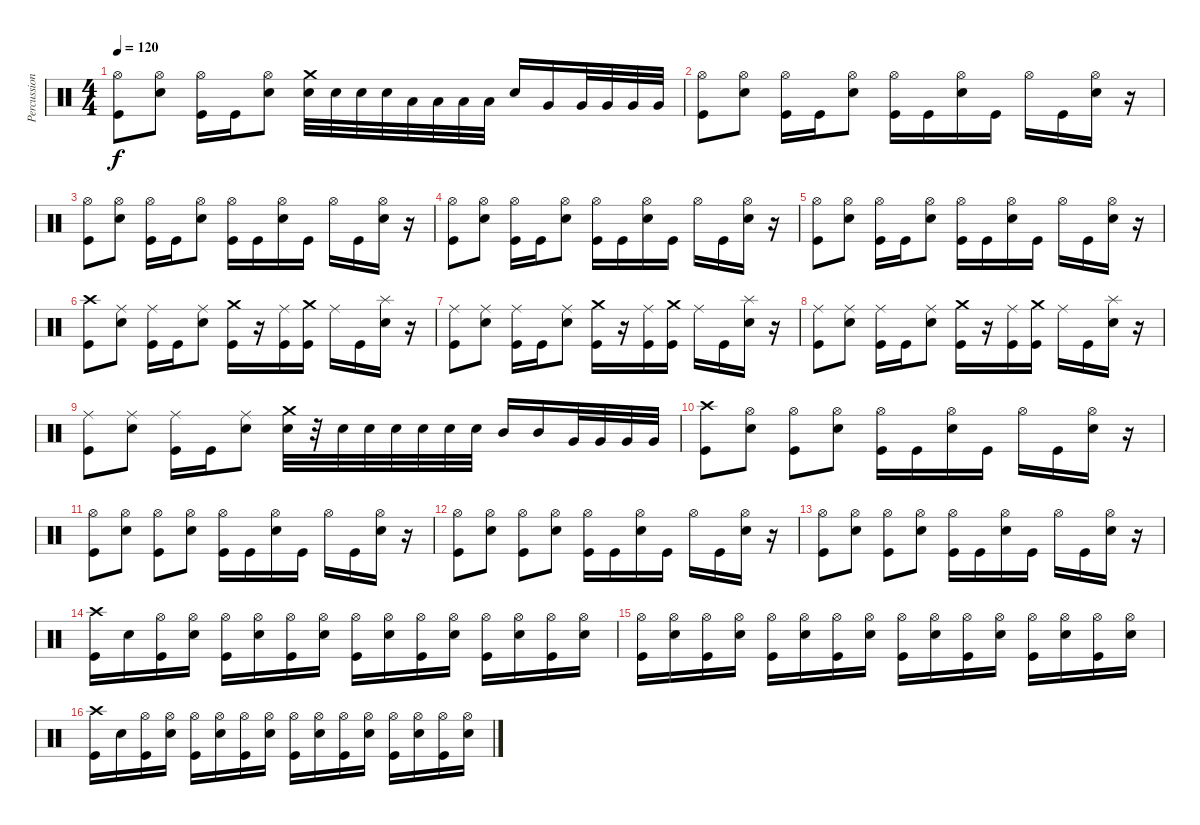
\track ("Percussion" "Percussion") {instrument percussion}
\staff {score}
\articulation defaults
\ts (4 4)
\tempo 120
\clef neutral
\ks c
("Kick (hit)" "Hi-Hat (open)").8{dy f} ("Electric Snare (hit)" "Hi-Hat (open)").8 ("Hi-Hat (open)" "Kick (hit)").16 "Kick (hit)".16 ("Hi-Hat (open)" "Electric Snare (hit)").8 ("Crash medium (hit)" "Electric Snare (hit)").32 "Electric Snare (hit)".32 "Electric Snare (hit)".32 "Electric Snare (hit)".32 "Low Tom (hit)".32 "Low Tom (hit)".32 "Low Tom (hit)".32 "Low Tom (hit)".32 "Electric Snare (hit)".16 "Very Low Tom (hit)".16 "Very Low Tom (hit)".32 "Very Low Tom (hit)".32 "Very Low Tom (hit)".32 "Very Low Tom (hit)".32 |
("Kick (hit)" "Hi-Hat (open)").8 ("Electric Snare (hit)" "Hi-Hat (open)").8 ("Hi-Hat (open)" "Kick (hit)").16 "Kick (hit)".16 ("Hi-Hat (open)" "Electric Snare (hit)").8 ("Hi-Hat (open)" "Kick (hit)").16 "Kick (hit)".16 ("Hi-Hat (open)" "Electric Snare (hit)").16 "Kick (hit)".16 "Hi-Hat (open)".16 "Kick (hit)".16 ("Hi-Hat (open)" "Electric Snare (hit)").16 r.16 |
("Kick (hit)" "Hi-Hat (open)").8 ("Electric Snare (hit)" "Hi-Hat (open)").8 ("Hi-Hat (open)" "Kick (hit)").16 "Kick (hit)".16 ("Hi-Hat (open)" "Electric Snare (hit)").8 ("Hi-Hat (open)" "Kick (hit)").16 "Kick (hit)".16 ("Hi-Hat (open)" "Electric Snare (hit)").16 "Kick (hit)".16 "Hi-Hat (open)".16 "Kick (hit)".16 ("Hi-Hat (open)" "Electric Snare (hit)").16 r.16 |
("Kick (hit)" "Hi-Hat (open)").8 ("Electric Snare (hit)" "Hi-Hat (open)").8 ("Hi-Hat (open)" "Kick (hit)").16 "Kick (hit)".16 ("Hi-Hat (open)" "Electric Snare (hit)").8 ("Hi-Hat (open)" "Kick (hit)").16 "Kick (hit)".16 ("Hi-Hat (open)" "Electric Snare (hit)").16 "Kick (hit)".16 "Hi-Hat (open)".16 "Kick (hit)".16 ("Hi-Hat (open)" "Electric Snare (hit)").16 r.16 |
("Kick (hit)" "Hi-Hat (open)").8 ("Electric Snare (hit)" "Hi-Hat (open)").8 ("Hi-Hat (open)" "Kick (hit)").16 "Kick (hit)".16 ("Hi-Hat (open)" "Electric Snare (hit)").8 ("Hi-Hat (open)" "Kick (hit)").16 "Kick (hit)".16 ("Hi-Hat (open)" "Electric Snare (hit)").16 "Kick (hit)".16 "Hi-Hat (open)".16 "Kick (hit)".16 ("Hi-Hat (open)" "Electric Snare (hit)").16 r.16 |
("Kick (hit)" "Crash high (hit)").8 ("Electric Snare (hit)" "Ride (middle)").8 ("Kick (hit)" "Ride (middle)").16 "Kick (hit)".16 ("Ride (middle)" "Electric Snare (hit)").8 ("Crash medium (hit)" "Kick (hit)").16 r.16 ("Ride (middle)" "Kick (hit)").16 ("Crash medium (hit)" "Kick (hit)").16 "Ride (middle)".16 "Kick (hit)".16 ("Splash (hit)" "Electric Snare (hit)").16 r.16 |
("Kick (hit)" "Ride (middle)").8 ("Electric Snare (hit)" "Ride (middle)").8 ("Kick (hit)" "Ride (middle)").16 "Kick (hit)".16 ("Ride (middle)" "Electric Snare (hit)").8 ("Crash medium (hit)" "Kick (hit)").16 r.16 ("Ride (middle)" "Kick (hit)").16 ("Crash medium (hit)" "Kick (hit)").16 "Ride (middle)".16 "Kick (hit)".16 ("Splash (hit)" "Electric Snare (hit)").16 r.16 |
("Kick (hit)" "Ride (middle)").8 ("Electric Snare (hit)" "Ride (middle)").8 ("Kick (hit)" "Ride (middle)").16 "Kick (hit)".16 ("Ride (middle)" "Electric Snare (hit)").8 ("Crash medium (hit)" "Kick (hit)").16 r.16 ("Ride (middle)" "Kick (hit)").16 ("Crash medium (hit)" "Kick (hit)").16 "Ride (middle)".16 "Kick (hit)".16 ("Splash (hit)" "Electric Snare (hit)").16 r.16 |
("Kick (hit)" "Ride (middle)").8 ("Electric Snare (hit)" "Ride (middle)").8 ("Kick (hit)" "Ride (middle)").16 "Kick (hit)".16 ("Ride (middle)" "Electric Snare (hit)").8 ("Crash medium (hit)" "Electric Snare (hit)").32 r.32 "Electric Snare (hit)".32 "Electric Snare (hit)".32 "Electric Snare (hit)".32 "Electric Snare (hit)".32 "Electric Snare (hit)".32 "Electric Snare (hit)".32 "Mid Tom (hit)".16 "Mid Tom (hit)".16 "Very Low Tom (hit)".32 "Very Low Tom (hit)".32 "Very Low Tom (hit)".32 "Very Low Tom (hit)".32 |
("Kick (hit)" "Crash high (hit)").8 ("Electric Snare (hit)" "Hi-Hat (open)").8 ("Kick (hit)" "Hi-Hat (open)").8 ("Electric Snare (hit)" "Hi-Hat (open)").8 ("Hi-Hat (open)" "Kick (hit)").16 "Kick (hit)".16 ("Hi-Hat (open)" "Electric Snare (hit)").16 "Kick (hit)".16 "Hi-Hat (open)".16 "Kick (hit)".16 ("Hi-Hat (open)" "Electric Snare (hit)").16 r.16 |
("Kick (hit)" "Hi-Hat (open)").8 ("Electric Snare (hit)" "Hi-Hat (open)").8 ("Kick (hit)" "Hi-Hat (open)").8 ("Electric Snare (hit)" "Hi-Hat (open)").8 ("Hi-Hat (open)" "Kick (hit)").16 "Kick (hit)".16 ("Hi-Hat (open)" "Electric Snare (hit)").16 "Kick (hit)".16 "Hi-Hat (open)".16 "Kick (hit)".16 ("Hi-Hat (open)" "Electric Snare (hit)").16 r.16 |
("Kick (hit)" "Hi-Hat (open)").8 ("Electric Snare (hit)" "Hi-Hat (open)").8 ("Kick (hit)" "Hi-Hat (open)").8 ("Electric Snare (hit)" "Hi-Hat (open)").8 ("Hi-Hat (open)" "Kick (hit)").16 "Kick (hit)".16 ("Hi-Hat (open)" "Electric Snare (hit)").16 "Kick (hit)".16 "Hi-Hat (open)".16 "Kick (hit)".16 ("Hi-Hat (open)" "Electric Snare (hit)").16 r.16 |
("Kick (hit)" "Hi-Hat (open)").8 ("Electric Snare (hit)" "Hi-Hat (open)").8 ("Kick (hit)" "Hi-Hat (open)").8 ("Electric Snare (hit)" "Hi-Hat (open)").8 ("Hi-Hat (open)" "Kick (hit)").16 "Kick (hit)".16 ("Hi-Hat (open)" "Electric Snare (hit)").16 "Kick (hit)".16 "Hi-Hat (open)".16 "Kick (hit)".16 ("Hi-Hat (open)" "Electric Snare (hit)").16 r.16 |
("Crash high (hit)" "Kick (hit)").16 "Electric Snare (hit)".16 ("Hi-Hat (open)" "Kick (hit)").16 ("Hi-Hat (open)" "Electric Snare (hit)").16 ("Hi-Hat (open)" "Kick (hit)").16 ("Hi-Hat (open)" "Electric Snare (hit)").16 ("Hi-Hat (open)" "Kick (hit)").16 ("Hi-Hat (open)" "Electric Snare (hit)").16 ("Hi-Hat (open)" "Kick (hit)").16 ("Hi-Hat (open)" "Electric Snare (hit)").16 ("Hi-Hat (open)" "Kick (hit)").16 ("Hi-Hat (open)" "Electric Snare (hit)").16 ("Hi-Hat (open)" "Kick (hit)").16 ("Hi-Hat (open)" "Electric Snare (hit)").16 ("Hi-Hat (open)" "Kick (hit)").16 ("Hi-Hat (open)" "Electric Snare (hit)").16 |
("Hi-Hat (open)" "Kick (hit)").16 ("Hi-Hat (open)" "Electric Snare (hit)").16 ("Hi-Hat (open)" "Kick (hit)").16 ("Hi-Hat (open)" "Electric Snare (hit)").16 ("Hi-Hat (open)" "Kick (hit)").16 ("Hi-Hat (open)" "Electric Snare (hit)").16 ("Hi-Hat (open)" "Kick (hit)").16 ("Hi-Hat (open)" "Electric Snare (hit)").16 ("Hi-Hat (open)" "Kick (hit)").16 ("Hi-Hat (open)" "Electric Snare (hit)").16 ("Hi-Hat (open)" "Kick (hit)").16 ("Hi-Hat (open)" "Electric Snare (hit)").16 ("Hi-Hat (open)" "Kick (hit)").16 ("Hi-Hat (open)" "Electric Snare (hit)").16 ("Hi-Hat (open)" "Kick (hit)").16 ("Hi-Hat (open)" "Electric Snare (hit)").16 |
("Crash high (hit)" "Kick (hit)").16 "Electric Snare (hit)".16 ("Hi-Hat (open)" "Kick (hit)").16 ("Hi-Hat (open)" "Electric Snare (hit)").16 ("Hi-Hat (open)" "Kick (hit)").16 ("Hi-Hat (open)" "Electric Snare (hit)").16 ("Hi-Hat (open)" "Kick (hit)").16 ("Hi-Hat (open)" "Electric Snare (hit)").16 ("Hi-Hat (open)" "Kick (hit)").16 ("Hi-Hat (open)" "Electric Snare (hit)").16 ("Hi-Hat (open)" "Kick (hit)").16 ("Hi-Hat (open)" "Electric Snare (hit)").16 ("Hi-Hat (open)" "Kick (hit)").16 ("Hi-Hat (open)" "Electric Snare (hit)").16 ("Hi-Hat (open)" "Kick (hit)").16 ("Hi-Hat (open)" "Electric Snare (hit)").16
